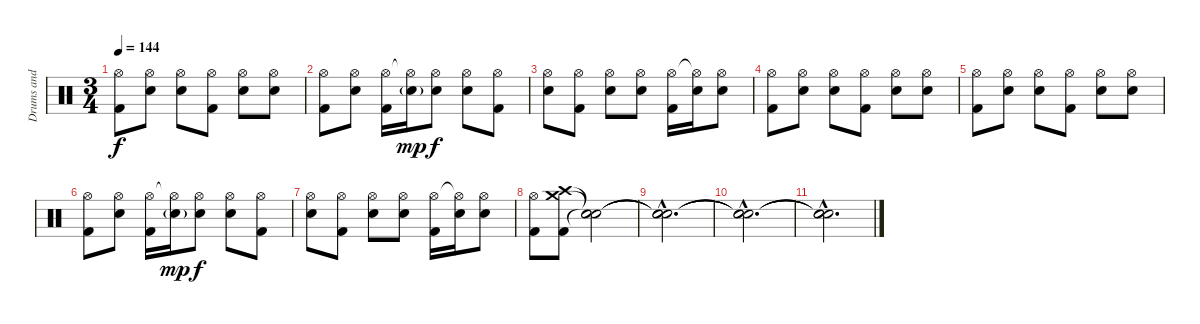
\track ("Drums and Percussion" "Drums and ") {instrument percussion}
\staff {score}
\articulation defaults
\ts (3 4)
\tempo 144
\clef neutral
\ks c
("Hi-Hat (open)" "Kick (hit) 2").8{dy f} ("Hi-Hat (open)" "Electric Snare (hit)").8 ("Hi-Hat (open)" "Electric Snare (hit)").8 ("Hi-Hat (open)" "Kick (hit) 2").8 ("Hi-Hat (open)" "Electric Snare (hit)").8 ("Hi-Hat (open)" "Electric Snare (hit)").8 |
("Hi-Hat (open)" "Kick (hit) 2").8 ("Hi-Hat (open)" "Electric Snare (hit)").8 ("Hi-Hat (open)" "Kick (hit) 2").16 ("Hi-Hat (open)"{t} "Electric Snare (hit)"{g}).16{dy mp} ("Hi-Hat (open)" "Electric Snare (hit)").8{dy f} ("Hi-Hat (open)" "Electric Snare (hit)").8 ("Hi-Hat (open)" "Kick (hit) 2").8 |
("Hi-Hat (open)" "Electric Snare (hit)").8 ("Hi-Hat (open)" "Kick (hit) 2").8 ("Hi-Hat (open)" "Electric Snare (hit)").8 ("Hi-Hat (open)" "Electric Snare (hit)").8 ("Hi-Hat (open)" "Kick (hit) 2").16 ("Hi-Hat (open)"{t} "Electric Snare (hit)").16 ("Hi-Hat (open)" "Electric Snare (hit)").8 |
("Hi-Hat (open)" "Kick (hit) 2").8 ("Hi-Hat (open)" "Electric Snare (hit)").8 ("Hi-Hat (open)" "Electric Snare (hit)").8 ("Hi-Hat (open)" "Kick (hit) 2").8 ("Hi-Hat (open)" "Electric Snare (hit)").8 ("Hi-Hat (open)" "Electric Snare (hit)").8 |
("Hi-Hat (open)" "Kick (hit) 2").8 ("Hi-Hat (open)" "Electric Snare (hit)").8 ("Hi-Hat (open)" "Electric Snare (hit)").8 ("Hi-Hat (open)" "Kick (hit) 2").8 ("Hi-Hat (open)" "Electric Snare (hit)").8 ("Hi-Hat (open)" "Electric Snare (hit)").8 |
("Hi-Hat (open)" "Kick (hit) 2").8 ("Hi-Hat (open)" "Electric Snare (hit)").8 ("Hi-Hat (open)" "Kick (hit) 2").16 ("Hi-Hat (open)"{t} "Electric Snare (hit)"{g}).16{dy mp} ("Hi-Hat (open)" "Electric Snare (hit)").8{dy f} ("Hi-Hat (open)" "Electric Snare (hit)").8 ("Hi-Hat (open)" "Kick (hit) 2").8 |
("Hi-Hat (open)" "Electric Snare (hit)").8 ("Hi-Hat (open)" "Kick (hit) 2").8 ("Hi-Hat (open)" "Electric Snare (hit)").8 ("Hi-Hat (open)" "Electric Snare (hit)").8 ("Hi-Hat (open)" "Kick (hit) 2").16 ("Hi-Hat (open)"{t} "Electric Snare (hit)").16 ("Hi-Hat (open)" "Electric Snare (hit)").8 |
("Hi-Hat (open)" "Kick (hit) 2").8{volume 0} ("Crash medium (hit)" "Crash high (hit)" "Kick (hit) 2").8 ("Snare (hit)"{t} "Snare (hit)"{t} "Snare (hit)"{t}).2 |
("Snare (hit)"{hac t} "Snare (hit)"{hac t} "Snare (hit)"{hac t}).2{d} |
("Snare (hit)"{hac t} "Snare (hit)"{hac t} "Snare (hit)"{hac t}).2{d} |
("Snare (hit)"{hac t} "Snare (hit)"{hac t} "Snare (hit)"{hac t}).2{d}
